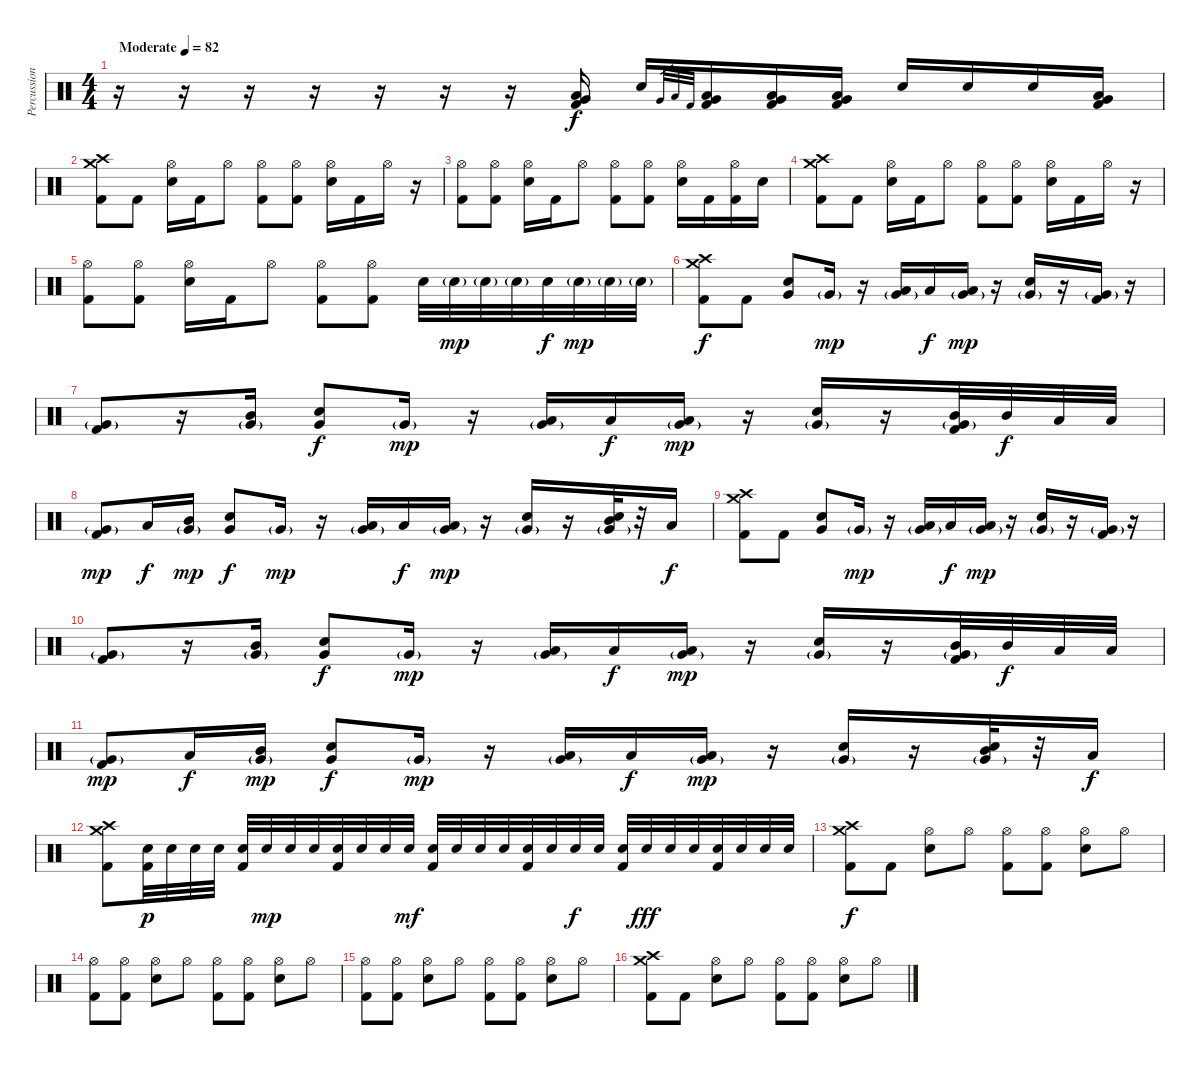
\track ("Percussion" "Percussion") {instrument percussion}
\staff {score}
\articulation defaults
\ts (4 4)
\tempo (82 "Moderate")
\clef neutral
\ks c
r.16{dy f} r.16 r.16 r.16 r.16 r.16 r.16 ("Very Low Tom (hit)" "Low Tom (hit)" "Kick (hit) 2").16 "Electric Snare (hit)".16 "Very Low Tom (hit)".32{gr} "Low Tom (hit)".32{gr} "Kick (hit) 2".32{gr} ("Very Low Tom (hit)" "Low Tom (hit)" "Kick (hit) 2").16 ("Very Low Tom (hit)" "Low Tom (hit)" "Kick (hit) 2").16 ("Very Low Tom (hit)" "Low Tom (hit)" "Kick (hit) 2").16 "Electric Snare (hit)".16 "Electric Snare (hit)".16 "Electric Snare (hit)".16 ("Very Low Tom (hit)" "Low Tom (hit)" "Kick (hit) 2").16 |
("Crash high (hit)" "Crash medium (hit)" "Kick (hit) 2").8 "Kick (hit) 2".8 ("Hi-Hat (open)" "Electric Snare (hit)").16 "Kick (hit) 2".16 "Hi-Hat (open)".8 ("Hi-Hat (open)" "Kick (hit) 2").8 ("Hi-Hat (open)" "Kick (hit) 2").8 ("Hi-Hat (open)" "Electric Snare (hit)").16 "Kick (hit) 2".16 "Hi-Hat (open)".16 r.16 |
("Hi-Hat (open)" "Kick (hit) 2").8 ("Hi-Hat (open)" "Kick (hit) 2").8 ("Hi-Hat (open)" "Electric Snare (hit)").16 "Kick (hit) 2".16 "Hi-Hat (open)".8 ("Hi-Hat (open)" "Kick (hit) 2").8 ("Hi-Hat (open)" "Kick (hit) 2").8 ("Hi-Hat (open)" "Electric Snare (hit)").16 "Kick (hit) 2".16 ("Hi-Hat (open)" "Kick (hit) 2").16 "Electric Snare (hit)".16 |
("Crash high (hit)" "Crash medium (hit)" "Kick (hit) 2").8 "Kick (hit) 2".8 ("Hi-Hat (open)" "Electric Snare (hit)").16 "Kick (hit) 2".16 "Hi-Hat (open)".8 ("Hi-Hat (open)" "Kick (hit) 2").8 ("Hi-Hat (open)" "Kick (hit) 2").8 ("Hi-Hat (open)" "Electric Snare (hit)").16 "Kick (hit) 2".16 "Hi-Hat (open)".16 r.16 |
("Hi-Hat (open)" "Kick (hit) 2").8 ("Hi-Hat (open)" "Kick (hit) 2").8 ("Hi-Hat (open)" "Electric Snare (hit)").16 "Kick (hit) 2".16 "Hi-Hat (open)".8 ("Hi-Hat (open)" "Kick (hit) 2").8 ("Hi-Hat (open)" "Kick (hit) 2").8 "Electric Snare (hit)".32 "Electric Snare (hit)"{g}.32{dy mp} "Electric Snare (hit)"{g}.32 "Electric Snare (hit)"{g}.32 "Electric Snare (hit)".32{dy f} "Electric Snare (hit)"{g}.32{dy mp} "Electric Snare (hit)"{g}.32 "Electric Snare (hit)"{g}.32 |
("Crash high (hit)" "Crash medium (hit)" "Kick (hit) 2").8{dy f} "Kick (hit) 2".8 ("Very Low Tom (hit)" "Electric Snare (hit)").8 "Very Low Tom (hit)"{g}.16{dy mp} r.16 ("Low Tom (hit)" "Very Low Tom (hit)"{g}).16 "Low Tom (hit)".16{dy f} ("Low Tom (hit)" "Very Low Tom (hit)"{g}).16{dy mp} r.16 ("Very Low Tom (hit)"{g} "Electric Snare (hit)").16 r.16 ("Very Low Tom (hit)"{g} "Kick (hit) 2").16 r.16 |
("Very Low Tom (hit)"{g} "Kick (hit) 2").8 r.16 ("Mid Tom (hit)" "Very Low Tom (hit)"{g}).16 ("Very Low Tom (hit)" "Electric Snare (hit)").8{dy f} "Very Low Tom (hit)"{g}.16{dy mp} r.16 ("Low Tom (hit)" "Very Low Tom (hit)"{g}).16 "Low Tom (hit)".16{dy f} ("Low Tom (hit)" "Very Low Tom (hit)"{g}).16{dy mp} r.16 ("Very Low Tom (hit)"{g} "Electric Snare (hit)").16 r.16 ("Mid Tom (hit)" "Very Low Tom (hit)"{g} "Kick (hit) 2").32 "Mid Tom (hit)".32{dy f} "Low Tom (hit)".32 "Low Tom (hit)".32 |
("Very Low Tom (hit)"{g} "Kick (hit) 2").8{dy mp} "Low Tom (hit)".16{dy f} ("Mid Tom (hit)" "Very Low Tom (hit)"{g}).16{dy mp} ("Very Low Tom (hit)" "Electric Snare (hit)").8{dy f} "Very Low Tom (hit)"{g}.16{dy mp} r.16 ("Low Tom (hit)" "Very Low Tom (hit)"{g}).16 "Low Tom (hit)".16{dy f} ("Low Tom (hit)" "Very Low Tom (hit)"{g}).16{dy mp} r.16 ("Very Low Tom (hit)"{g} "Electric Snare (hit)").16 r.16 ("Mid Tom (hit)" "Very Low Tom (hit)"{g} "Electric Snare (hit)").32 r.32 "Low Tom (hit)".16{dy f} |
("Crash high (hit)" "Crash medium (hit)" "Kick (hit) 2").8 "Kick (hit) 2".8 ("Very Low Tom (hit)" "Electric Snare (hit)").8 "Very Low Tom (hit)"{g}.16{dy mp} r.16 ("Low Tom (hit)" "Very Low Tom (hit)"{g}).16 "Low Tom (hit)".16{dy f} ("Low Tom (hit)" "Very Low Tom (hit)"{g}).16{dy mp} r.16 ("Very Low Tom (hit)"{g} "Electric Snare (hit)").16 r.16 ("Very Low Tom (hit)"{g} "Kick (hit) 2").16 r.16 |
("Very Low Tom (hit)"{g} "Kick (hit) 2").8 r.16 ("Mid Tom (hit)" "Very Low Tom (hit)"{g}).16 ("Very Low Tom (hit)" "Electric Snare (hit)").8{dy f} "Very Low Tom (hit)"{g}.16{dy mp} r.16 ("Low Tom (hit)" "Very Low Tom (hit)"{g}).16 "Low Tom (hit)".16{dy f} ("Low Tom (hit)" "Very Low Tom (hit)"{g}).16{dy mp} r.16 ("Very Low Tom (hit)"{g} "Electric Snare (hit)").16 r.16 ("Mid Tom (hit)" "Very Low Tom (hit)"{g} "Kick (hit) 2").32 "Mid Tom (hit)".32{dy f} "Low Tom (hit)".32 "Low Tom (hit)".32 |
("Very Low Tom (hit)"{g} "Kick (hit) 2").8{dy mp} "Low Tom (hit)".16{dy f} ("Mid Tom (hit)" "Very Low Tom (hit)"{g}).16{dy mp} ("Very Low Tom (hit)" "Electric Snare (hit)").8{dy f} "Very Low Tom (hit)"{g}.16{dy mp} r.16 ("Low Tom (hit)" "Very Low Tom (hit)"{g}).16 "Low Tom (hit)".16{dy f} ("Low Tom (hit)" "Very Low Tom (hit)"{g}).16{dy mp} r.16 ("Very Low Tom (hit)"{g} "Electric Snare (hit)").16 r.16 ("Mid Tom (hit)" "Very Low Tom (hit)"{g} "Electric Snare (hit)").32 r.32 "Low Tom (hit)".16{dy f} |
("Crash high (hit)" "Crash medium (hit)" "Kick (hit) 2").8 ("Kick (hit) 2" "Electric Snare (hit)").32{dy p} "Electric Snare (hit)".32 "Electric Snare (hit)".32 "Electric Snare (hit)".32 ("Kick (hit) 2" "Electric Snare (hit)").32 "Electric Snare (hit)".32{dy mp} "Electric Snare (hit)".32 "Electric Snare (hit)".32 ("Kick (hit) 2" "Electric Snare (hit)").32 "Electric Snare (hit)".32 "Electric Snare (hit)".32 "Electric Snare (hit)".32{dy mf} ("Kick (hit) 2" "Electric Snare (hit)").32 "Electric Snare (hit)".32 "Electric Snare (hit)".32 "Electric Snare (hit)".32 ("Kick (hit) 2" "Electric Snare (hit)").32 "Electric Snare (hit)".32 "Electric Snare (hit)".32{dy f} "Electric Snare (hit)".32 ("Kick (hit) 2" "Electric Snare (hit)").32 "Electric Snare (hit)".32{dy fff} "Electric Snare (hit)".32 "Electric Snare (hit)".32 ("Kick (hit) 2" "Electric Snare (hit)").32 "Electric Snare (hit)".32 "Electric Snare (hit)".32 "Electric Snare (hit)".32 |
("Crash high (hit)" "Crash medium (hit)" "Kick (hit) 2").8{dy f} "Kick (hit) 2".8 ("Hi-Hat (open)" "Electric Snare (hit)").8 "Hi-Hat (open)".8 ("Hi-Hat (open)" "Kick (hit) 2").8 ("Hi-Hat (open)" "Kick (hit) 2").8 ("Hi-Hat (open)" "Electric Snare (hit)").8 "Hi-Hat (open)".8 |
("Hi-Hat (open)" "Kick (hit) 2").8 ("Hi-Hat (open)" "Kick (hit) 2").8 ("Hi-Hat (open)" "Electric Snare (hit)").8 "Hi-Hat (open)".8 ("Hi-Hat (open)" "Kick (hit) 2").8 ("Hi-Hat (open)" "Kick (hit) 2").8 ("Hi-Hat (open)" "Electric Snare (hit)").8 "Hi-Hat (open)".8 |
("Hi-Hat (open)" "Kick (hit) 2").8 ("Hi-Hat (open)" "Kick (hit) 2").8 ("Hi-Hat (open)" "Electric Snare (hit)").8 "Hi-Hat (open)".8 ("Hi-Hat (open)" "Kick (hit) 2").8 ("Hi-Hat (open)" "Kick (hit) 2").8 ("Hi-Hat (open)" "Electric Snare (hit)").8 "Hi-Hat (open)".8 |
("Crash high (hit)" "Crash medium (hit)" "Kick (hit) 2").8 "Kick (hit) 2".8 ("Hi-Hat (open)" "Electric Snare (hit)").8 "Hi-Hat (open)".8 ("Hi-Hat (open)" "Kick (hit) 2").8 ("Hi-Hat (open)" "Kick (hit) 2").8 ("Hi-Hat (open)" "Electric Snare (hit)").8 "Hi-Hat (open)".8
